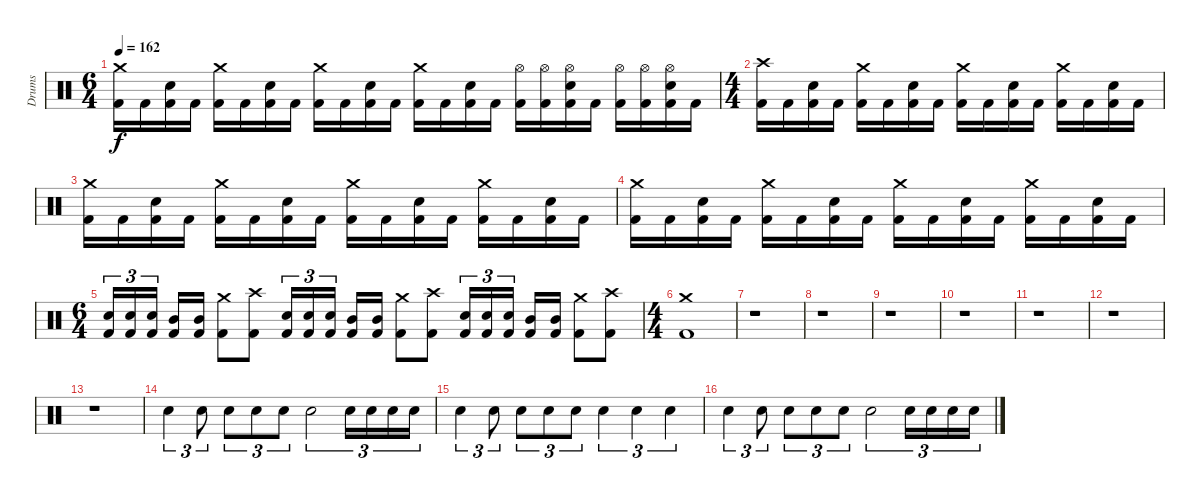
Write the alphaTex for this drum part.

\track ("Drums" "Drums") {instrument percussion}
\staff {score}
\articulation defaults
\ts (6 4)
\tempo 162
\clef neutral
\ks c
("Kick (hit) 2" "Crash medium (hit)").16{dy f} "Kick (hit) 2".16 ("Kick (hit) 2" "Electric Snare (hit)").16 "Kick (hit) 2".16 ("Kick (hit) 2" "Crash medium (hit)").16 "Kick (hit) 2".16 ("Kick (hit) 2" "Electric Snare (hit)").16 "Kick (hit) 2".16 ("Kick (hit) 2" "Crash medium (hit)").16 "Kick (hit) 2".16 ("Kick (hit) 2" "Electric Snare (hit)").16 "Kick (hit) 2".16 ("Kick (hit) 2" "Crash medium (hit)").16 "Kick (hit) 2".16 ("Kick (hit) 2" "Electric Snare (hit)").16 "Kick (hit) 2".16 ("Kick (hit) 2" "Hi-Hat (open)").16 ("Kick (hit) 2" "Hi-Hat (open)").16 ("Kick (hit) 2" "Electric Snare (hit)" "Hi-Hat (open)").16 "Kick (hit) 2".16 ("Kick (hit) 2" "Hi-Hat (open)").16 ("Kick (hit) 2" "Hi-Hat (open)").16 ("Kick (hit) 2" "Electric Snare (hit)" "Hi-Hat (open)").16 "Kick (hit) 2".16 |
\ts (4 4)
("Kick (hit) 2" "Crash high (hit)").16 "Kick (hit) 2".16 ("Kick (hit) 2" "Electric Snare (hit)").16 "Kick (hit) 2".16 ("Kick (hit) 2" "Crash medium (hit)").16 "Kick (hit) 2".16 ("Kick (hit) 2" "Electric Snare (hit)").16 "Kick (hit) 2".16 ("Kick (hit) 2" "Crash medium (hit)").16 "Kick (hit) 2".16 ("Kick (hit) 2" "Electric Snare (hit)").16 "Kick (hit) 2".16 ("Kick (hit) 2" "Crash medium (hit)").16 "Kick (hit) 2".16 ("Kick (hit) 2" "Electric Snare (hit)").16 "Kick (hit) 2".16 |
("Kick (hit) 2" "Crash medium (hit)").16 "Kick (hit) 2".16 ("Kick (hit) 2" "Electric Snare (hit)").16 "Kick (hit) 2".16 ("Kick (hit) 2" "Crash medium (hit)").16 "Kick (hit) 2".16 ("Kick (hit) 2" "Electric Snare (hit)").16 "Kick (hit) 2".16 ("Kick (hit) 2" "Crash medium (hit)").16 "Kick (hit) 2".16 ("Kick (hit) 2" "Electric Snare (hit)").16 "Kick (hit) 2".16 ("Kick (hit) 2" "Crash medium (hit)").16 "Kick (hit) 2".16 ("Kick (hit) 2" "Electric Snare (hit)").16 "Kick (hit) 2".16 |
("Kick (hit) 2" "Crash medium (hit)").16 "Kick (hit) 2".16 ("Kick (hit) 2" "Electric Snare (hit)").16 "Kick (hit) 2".16 ("Kick (hit) 2" "Crash medium (hit)").16 "Kick (hit) 2".16 ("Kick (hit) 2" "Electric Snare (hit)").16 "Kick (hit) 2".16 ("Kick (hit) 2" "Crash medium (hit)").16 "Kick (hit) 2".16 ("Kick (hit) 2" "Electric Snare (hit)").16 "Kick (hit) 2".16 ("Kick (hit) 2" "Crash medium (hit)").16 "Kick (hit) 2".16 ("Kick (hit) 2" "Electric Snare (hit)").16 "Kick (hit) 2".16 |
\ts (6 4)
("Kick (hit) 2" "Electric Snare (hit)").16{tu (3 2)} ("Kick (hit) 2" "Electric Snare (hit)").16{tu (3 2)} ("Kick (hit) 2" "Electric Snare (hit)").16{tu (3 2)} ("Kick (hit) 2" "Mid Tom (hit)").16 ("Kick (hit) 2" "Mid Tom (hit)").16 ("Kick (hit) 2" "Crash medium (hit)").8 ("Kick (hit) 2" "Crash high (hit)").8 ("Kick (hit) 2" "Electric Snare (hit)").16{tu (3 2)} ("Kick (hit) 2" "Electric Snare (hit)").16{tu (3 2)} ("Kick (hit) 2" "Electric Snare (hit)").16{tu (3 2)} ("Kick (hit) 2" "Mid Tom (hit)").16 ("Kick (hit) 2" "Mid Tom (hit)").16 ("Kick (hit) 2" "Crash medium (hit)").8 ("Kick (hit) 2" "Crash high (hit)").8 ("Kick (hit) 2" "Electric Snare (hit)").16{tu (3 2)} ("Kick (hit) 2" "Electric Snare (hit)").16{tu (3 2)} ("Kick (hit) 2" "Electric Snare (hit)").16{tu (3 2)} ("Kick (hit) 2" "Mid Tom (hit)").16 ("Kick (hit) 2" "Mid Tom (hit)").16 ("Kick (hit) 2" "Crash medium (hit)").8 ("Kick (hit) 2" "Crash high (hit)").8 |
\ts (4 4)
("Kick (hit) 2" "Crash medium (hit)").1 |
r.1 |
r.1 |
r.1 |
r.1 |
r.1 |
r.1 |
r.1 |
"Electric Snare (hit)".4{tu (3 2) volume 6} "Electric Snare (hit)".8{tu (3 2)} "Electric Snare (hit)".8{tu (3 2)} "Electric Snare (hit)".8{tu (3 2)} "Electric Snare (hit)".8{tu (3 2)} "Electric Snare (hit)".2{tu (3 2)} "Electric Snare (hit)".16{tu (3 2)} "Electric Snare (hit)".16{tu (3 2)} "Electric Snare (hit)".16{tu (3 2)} "Electric Snare (hit)".16{tu (3 2)} |
"Electric Snare (hit)".4{tu (3 2)} "Electric Snare (hit)".8{tu (3 2)} "Electric Snare (hit)".8{tu (3 2)} "Electric Snare (hit)".8{tu (3 2)} "Electric Snare (hit)".8{tu (3 2)} "Electric Snare (hit)".4{tu (3 2)} "Electric Snare (hit)".4{tu (3 2)} "Electric Snare (hit)".4{tu (3 2)} |
"Electric Snare (hit)".4{tu (3 2)} "Electric Snare (hit)".8{tu (3 2)} "Electric Snare (hit)".8{tu (3 2)} "Electric Snare (hit)".8{tu (3 2)} "Electric Snare (hit)".8{tu (3 2)} "Electric Snare (hit)".2{tu (3 2)} "Electric Snare (hit)".16{tu (3 2)} "Electric Snare (hit)".16{tu (3 2)} "Electric Snare (hit)".16{tu (3 2)} "Electric Snare (hit)".16{tu (3 2)}
